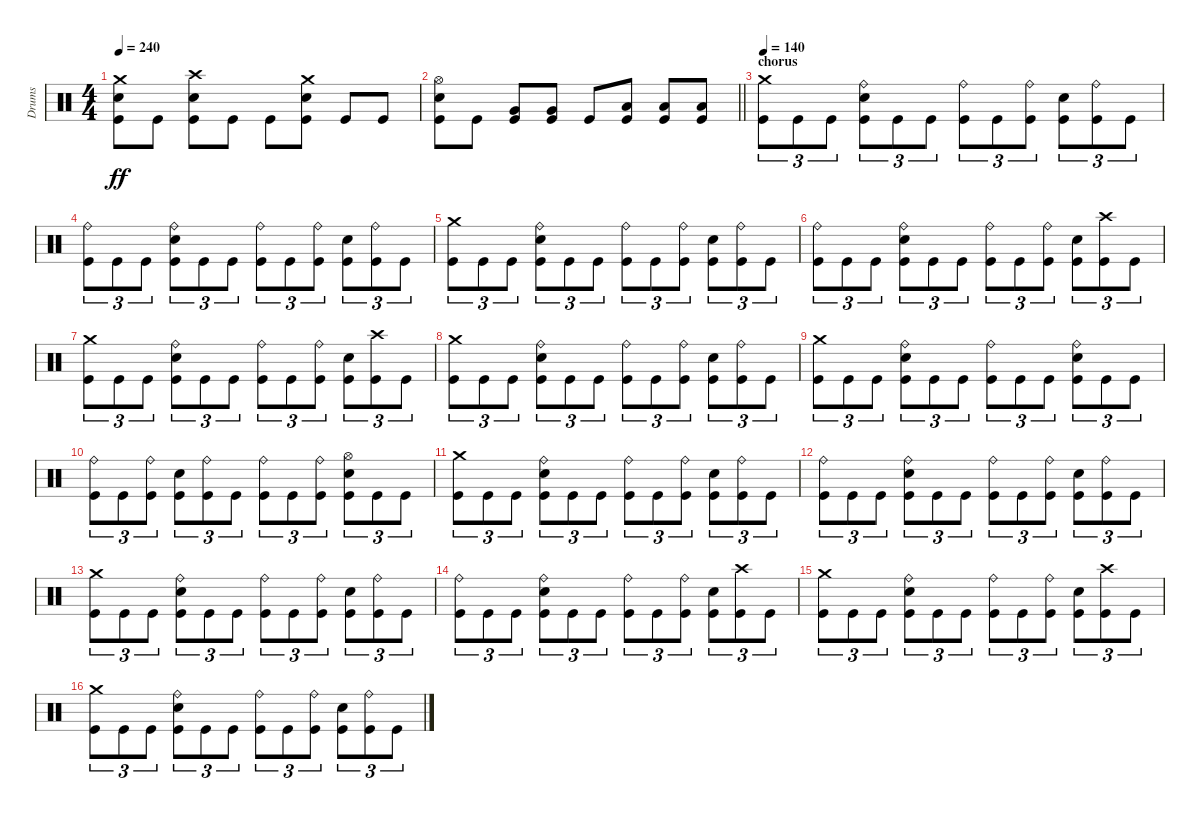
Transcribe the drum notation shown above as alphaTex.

\track ("Drums" "Drums") {instrument percussion}
\staff {score}
\articulation defaults
\ts (4 4)
\tempo 240
\clef neutral
\ks c
("Crash medium (hit)" "Electric Snare (hit)" "Kick (hit)").8{dy ff} "Kick (hit)".8 ("Crash high (hit)" "Electric Snare (hit)" "Kick (hit)").8 "Kick (hit)".8 "Kick (hit)".8 ("Crash medium (hit)" "Electric Snare (hit)" "Kick (hit)").8 "Kick (hit)".8 "Kick (hit)".8 |
\barLineRight lightlight
("Hi-Hat (open)" "Electric Snare (hit)" "Kick (hit)").8 "Kick (hit)".8 ("Very Low Tom (hit)" "Kick (hit)").8 ("Very Low Tom (hit)" "Kick (hit)").8 "Kick (hit)".8 ("Low Floor Tom (hit)" "Kick (hit)").8 ("Low Floor Tom (hit)" "Kick (hit)").8 ("Low Floor Tom (hit)" "Kick (hit)").8 |
\section ("" "chorus")
\tempo 140
("Crash medium (hit)" "Kick (hit)").8{tu (3 2)} "Kick (hit)".8{tu (3 2)} "Kick (hit)".8{tu (3 2)} ("Ride (bell)" "Electric Snare (hit)" "Kick (hit)").8{tu (3 2)} "Kick (hit)".8{tu (3 2)} "Kick (hit)".8{tu (3 2)} ("Ride (bell)" "Kick (hit)").8{tu (3 2)} "Kick (hit)".8{tu (3 2)} ("Ride (bell)" "Kick (hit)").8{tu (3 2)} ("Electric Snare (hit)" "Kick (hit)").8{tu (3 2)} ("Ride (bell)" "Kick (hit)").8{tu (3 2)} "Kick (hit)".8{tu (3 2)} |
("Ride (bell)" "Kick (hit)").8{tu (3 2)} "Kick (hit)".8{tu (3 2)} "Kick (hit)".8{tu (3 2)} ("Ride (bell)" "Electric Snare (hit)" "Kick (hit)").8{tu (3 2)} "Kick (hit)".8{tu (3 2)} "Kick (hit)".8{tu (3 2)} ("Ride (bell)" "Kick (hit)").8{tu (3 2)} "Kick (hit)".8{tu (3 2)} ("Ride (bell)" "Kick (hit)").8{tu (3 2)} ("Electric Snare (hit)" "Kick (hit)").8{tu (3 2)} ("Ride (bell)" "Kick (hit)").8{tu (3 2)} "Kick (hit)".8{tu (3 2)} |
("Crash medium (hit)" "Kick (hit)").8{tu (3 2)} "Kick (hit)".8{tu (3 2)} "Kick (hit)".8{tu (3 2)} ("Ride (bell)" "Electric Snare (hit)" "Kick (hit)").8{tu (3 2)} "Kick (hit)".8{tu (3 2)} "Kick (hit)".8{tu (3 2)} ("Ride (bell)" "Kick (hit)").8{tu (3 2)} "Kick (hit)".8{tu (3 2)} ("Ride (bell)" "Kick (hit)").8{tu (3 2)} ("Electric Snare (hit)" "Kick (hit)").8{tu (3 2)} ("Ride (bell)" "Kick (hit)").8{tu (3 2)} "Kick (hit)".8{tu (3 2)} |
("Ride (bell)" "Kick (hit)").8{tu (3 2)} "Kick (hit)".8{tu (3 2)} "Kick (hit)".8{tu (3 2)} ("Ride (bell)" "Electric Snare (hit)" "Kick (hit)").8{tu (3 2)} "Kick (hit)".8{tu (3 2)} "Kick (hit)".8{tu (3 2)} ("Ride (bell)" "Kick (hit)").8{tu (3 2)} "Kick (hit)".8{tu (3 2)} ("Ride (bell)" "Kick (hit)").8{tu (3 2)} ("Electric Snare (hit)" "Kick (hit)").8{tu (3 2)} ("Crash high (hit)" "Kick (hit)").8{tu (3 2)} "Kick (hit)".8{tu (3 2)} |
("Crash medium (hit)" "Kick (hit)").8{tu (3 2)} "Kick (hit)".8{tu (3 2)} "Kick (hit)".8{tu (3 2)} ("Ride (bell)" "Electric Snare (hit)" "Kick (hit)").8{tu (3 2)} "Kick (hit)".8{tu (3 2)} "Kick (hit)".8{tu (3 2)} ("Ride (bell)" "Kick (hit)").8{tu (3 2)} "Kick (hit)".8{tu (3 2)} ("Ride (bell)" "Kick (hit)").8{tu (3 2)} ("Electric Snare (hit)" "Kick (hit)").8{tu (3 2)} ("Crash high (hit)" "Kick (hit)").8{tu (3 2)} "Kick (hit)".8{tu (3 2)} |
("Crash medium (hit)" "Kick (hit)").8{tu (3 2)} "Kick (hit)".8{tu (3 2)} "Kick (hit)".8{tu (3 2)} ("Ride (bell)" "Electric Snare (hit)" "Kick (hit)").8{tu (3 2)} "Kick (hit)".8{tu (3 2)} "Kick (hit)".8{tu (3 2)} ("Ride (bell)" "Kick (hit)").8{tu (3 2)} "Kick (hit)".8{tu (3 2)} ("Ride (bell)" "Kick (hit)").8{tu (3 2)} ("Electric Snare (hit)" "Kick (hit)").8{tu (3 2)} ("Ride (bell)" "Kick (hit)").8{tu (3 2)} "Kick (hit)".8{tu (3 2)} |
("Crash medium (hit)" "Kick (hit)").8{tu (3 2)} "Kick (hit)".8{tu (3 2)} "Kick (hit)".8{tu (3 2)} ("Ride (bell)" "Electric Snare (hit)" "Kick (hit)").8{tu (3 2)} "Kick (hit)".8{tu (3 2)} "Kick (hit)".8{tu (3 2)} ("Ride (bell)" "Kick (hit)").8{tu (3 2)} "Kick (hit)".8{tu (3 2)} "Kick (hit)".8{tu (3 2)} ("Ride (bell)" "Electric Snare (hit)" "Kick (hit)").8{tu (3 2)} "Kick (hit)".8{tu (3 2)} "Kick (hit)".8{tu (3 2)} |
("Ride (bell)" "Kick (hit)").8{tu (3 2)} "Kick (hit)".8{tu (3 2)} ("Ride (bell)" "Kick (hit)").8{tu (3 2)} ("Electric Snare (hit)" "Kick (hit)").8{tu (3 2)} ("Ride (bell)" "Kick (hit)").8{tu (3 2)} "Kick (hit)".8{tu (3 2)} ("Ride (bell)" "Kick (hit)").8{tu (3 2)} "Kick (hit)".8{tu (3 2)} ("Ride (bell)" "Kick (hit)").8{tu (3 2)} ("Hi-Hat (open)" "Electric Snare (hit)" "Kick (hit)").8{tu (3 2)} "Kick (hit)".8{tu (3 2)} "Kick (hit)".8{tu (3 2)} |
("Crash medium (hit)" "Kick (hit)").8{tu (3 2)} "Kick (hit)".8{tu (3 2)} "Kick (hit)".8{tu (3 2)} ("Ride (bell)" "Electric Snare (hit)" "Kick (hit)").8{tu (3 2)} "Kick (hit)".8{tu (3 2)} "Kick (hit)".8{tu (3 2)} ("Ride (bell)" "Kick (hit)").8{tu (3 2)} "Kick (hit)".8{tu (3 2)} ("Ride (bell)" "Kick (hit)").8{tu (3 2)} ("Electric Snare (hit)" "Kick (hit)").8{tu (3 2)} ("Ride (bell)" "Kick (hit)").8{tu (3 2)} "Kick (hit)".8{tu (3 2)} |
("Ride (bell)" "Kick (hit)").8{tu (3 2)} "Kick (hit)".8{tu (3 2)} "Kick (hit)".8{tu (3 2)} ("Ride (bell)" "Electric Snare (hit)" "Kick (hit)").8{tu (3 2)} "Kick (hit)".8{tu (3 2)} "Kick (hit)".8{tu (3 2)} ("Ride (bell)" "Kick (hit)").8{tu (3 2)} "Kick (hit)".8{tu (3 2)} ("Ride (bell)" "Kick (hit)").8{tu (3 2)} ("Electric Snare (hit)" "Kick (hit)").8{tu (3 2)} ("Ride (bell)" "Kick (hit)").8{tu (3 2)} "Kick (hit)".8{tu (3 2)} |
("Crash medium (hit)" "Kick (hit)").8{tu (3 2)} "Kick (hit)".8{tu (3 2)} "Kick (hit)".8{tu (3 2)} ("Ride (bell)" "Electric Snare (hit)" "Kick (hit)").8{tu (3 2)} "Kick (hit)".8{tu (3 2)} "Kick (hit)".8{tu (3 2)} ("Ride (bell)" "Kick (hit)").8{tu (3 2)} "Kick (hit)".8{tu (3 2)} ("Ride (bell)" "Kick (hit)").8{tu (3 2)} ("Electric Snare (hit)" "Kick (hit)").8{tu (3 2)} ("Ride (bell)" "Kick (hit)").8{tu (3 2)} "Kick (hit)".8{tu (3 2)} |
("Ride (bell)" "Kick (hit)").8{tu (3 2)} "Kick (hit)".8{tu (3 2)} "Kick (hit)".8{tu (3 2)} ("Ride (bell)" "Electric Snare (hit)" "Kick (hit)").8{tu (3 2)} "Kick (hit)".8{tu (3 2)} "Kick (hit)".8{tu (3 2)} ("Ride (bell)" "Kick (hit)").8{tu (3 2)} "Kick (hit)".8{tu (3 2)} ("Ride (bell)" "Kick (hit)").8{tu (3 2)} ("Electric Snare (hit)" "Kick (hit)").8{tu (3 2)} ("Crash high (hit)" "Kick (hit)").8{tu (3 2)} "Kick (hit)".8{tu (3 2)} |
("Crash medium (hit)" "Kick (hit)").8{tu (3 2)} "Kick (hit)".8{tu (3 2)} "Kick (hit)".8{tu (3 2)} ("Ride (bell)" "Electric Snare (hit)" "Kick (hit)").8{tu (3 2)} "Kick (hit)".8{tu (3 2)} "Kick (hit)".8{tu (3 2)} ("Ride (bell)" "Kick (hit)").8{tu (3 2)} "Kick (hit)".8{tu (3 2)} ("Ride (bell)" "Kick (hit)").8{tu (3 2)} ("Electric Snare (hit)" "Kick (hit)").8{tu (3 2)} ("Crash high (hit)" "Kick (hit)").8{tu (3 2)} "Kick (hit)".8{tu (3 2)} |
("Crash medium (hit)" "Kick (hit)").8{tu (3 2)} "Kick (hit)".8{tu (3 2)} "Kick (hit)".8{tu (3 2)} ("Ride (bell)" "Electric Snare (hit)" "Kick (hit)").8{tu (3 2)} "Kick (hit)".8{tu (3 2)} "Kick (hit)".8{tu (3 2)} ("Ride (bell)" "Kick (hit)").8{tu (3 2)} "Kick (hit)".8{tu (3 2)} ("Ride (bell)" "Kick (hit)").8{tu (3 2)} ("Electric Snare (hit)" "Kick (hit)").8{tu (3 2)} ("Ride (bell)" "Kick (hit)").8{tu (3 2)} "Kick (hit)".8{tu (3 2)}
